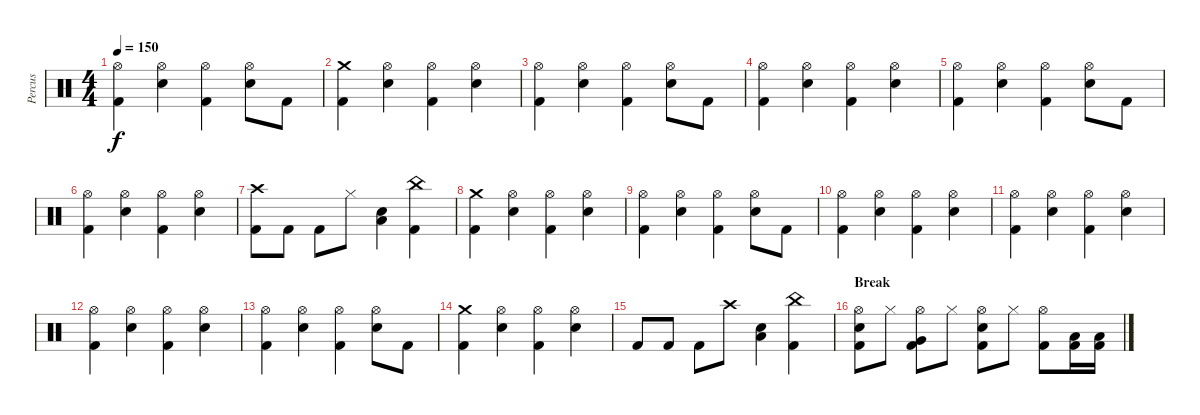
\track ("Percus" "Percus") {instrument percussion}
\staff {score}
\articulation defaults
\ts (4 4)
\tempo 150
\clef neutral
\ks c
("Hi-Hat (open)" "Kick (hit) 2").4{dy f} ("Hi-Hat (open)" "Snare (hit) 2").4 ("Hi-Hat (open)" "Kick (hit) 2").4 ("Hi-Hat (open)" "Snare (hit) 2").8 "Kick (hit) 2".8 |
("Crash medium (hit)" "Kick (hit) 2").4 ("Hi-Hat (open)" "Snare (hit) 2").4 ("Hi-Hat (open)" "Kick (hit) 2").4 ("Hi-Hat (open)" "Snare (hit) 2").4 |
("Hi-Hat (open)" "Kick (hit) 2").4 ("Hi-Hat (open)" "Snare (hit) 2").4 ("Hi-Hat (open)" "Kick (hit) 2").4 ("Hi-Hat (open)" "Snare (hit) 2").8 "Kick (hit) 2".8 |
("Hi-Hat (open)" "Kick (hit) 2").4 ("Hi-Hat (open)" "Snare (hit) 2").4 ("Hi-Hat (open)" "Kick (hit) 2").4 ("Hi-Hat (open)" "Snare (hit) 2").4 |
("Hi-Hat (open)" "Kick (hit) 2").4 ("Hi-Hat (open)" "Snare (hit) 2").4 ("Hi-Hat (open)" "Kick (hit) 2").4 ("Hi-Hat (open)" "Snare (hit) 2").8 "Kick (hit) 2".8 |
("Hi-Hat (open)" "Kick (hit) 2").4 ("Hi-Hat (open)" "Snare (hit) 2").4 ("Hi-Hat (open)" "Kick (hit) 2").4 ("Hi-Hat (open)" "Snare (hit) 2").4 |
("Kick (hit) 2" "Crash high (hit)").8 "Kick (hit) 2".8 "Kick (hit) 2".8 "Hi-Hat (closed)".8 ("Snare (hit) 2" "Low Floor Tom (hit)").4 ("China (hit)" "Kick (hit) 2").4 |
("Crash medium (hit)" "Kick (hit) 2").4 ("Hi-Hat (open)" "Snare (hit) 2").4 ("Hi-Hat (open)" "Kick (hit) 2").4 ("Hi-Hat (open)" "Snare (hit) 2").4 |
("Hi-Hat (open)" "Kick (hit) 2").4 ("Hi-Hat (open)" "Snare (hit) 2").4 ("Hi-Hat (open)" "Kick (hit) 2").4 ("Hi-Hat (open)" "Snare (hit) 2").8 "Kick (hit) 2".8 |
("Hi-Hat (open)" "Kick (hit) 2").4 ("Hi-Hat (open)" "Snare (hit) 2").4 ("Hi-Hat (open)" "Kick (hit) 2").4 ("Hi-Hat (open)" "Snare (hit) 2").4 |
("Hi-Hat (open)" "Kick (hit) 2").4 ("Hi-Hat (open)" "Snare (hit) 2").4 ("Hi-Hat (open)" "Kick (hit) 2").4 ("Hi-Hat (open)" "Snare (hit) 2").4 |
("Hi-Hat (open)" "Kick (hit) 2").4 ("Hi-Hat (open)" "Snare (hit) 2").4 ("Hi-Hat (open)" "Kick (hit) 2").4 ("Hi-Hat (open)" "Snare (hit) 2").4 |
("Hi-Hat (open)" "Kick (hit) 2").4 ("Hi-Hat (open)" "Snare (hit) 2").4 ("Hi-Hat (open)" "Kick (hit) 2").4 ("Hi-Hat (open)" "Snare (hit) 2").8 "Kick (hit) 2".8 |
("Crash medium (hit)" "Kick (hit) 2").4 ("Hi-Hat (open)" "Snare (hit) 2").4 ("Hi-Hat (open)" "Kick (hit) 2").4 ("Hi-Hat (open)" "Snare (hit) 2").4 |
"Kick (hit) 2".8 "Kick (hit) 2".8 "Kick (hit) 2".8 "Crash high (hit)".8 ("Snare (hit) 2" "Low Floor Tom (hit)").4 ("Kick (hit) 2" "China (hit)").4 |
\section ("" "Break")
("Hi-Hat (open)" "Snare (hit) 2" "Kick (hit) 2").8 "Hi-Hat (closed)".8 ("Hi-Hat (open)" "Very Low Tom (hit)" "Kick (hit) 2").8 "Hi-Hat (closed)".8 ("Hi-Hat (open)" "Snare (hit) 2" "Kick (hit) 2").8 "Hi-Hat (closed)".8 ("Hi-Hat (open)" "Kick (hit) 2").8 ("Kick (hit) 2" "Low Floor Tom (hit)").16 ("Kick (hit) 2" "Low Floor Tom (hit)").16
